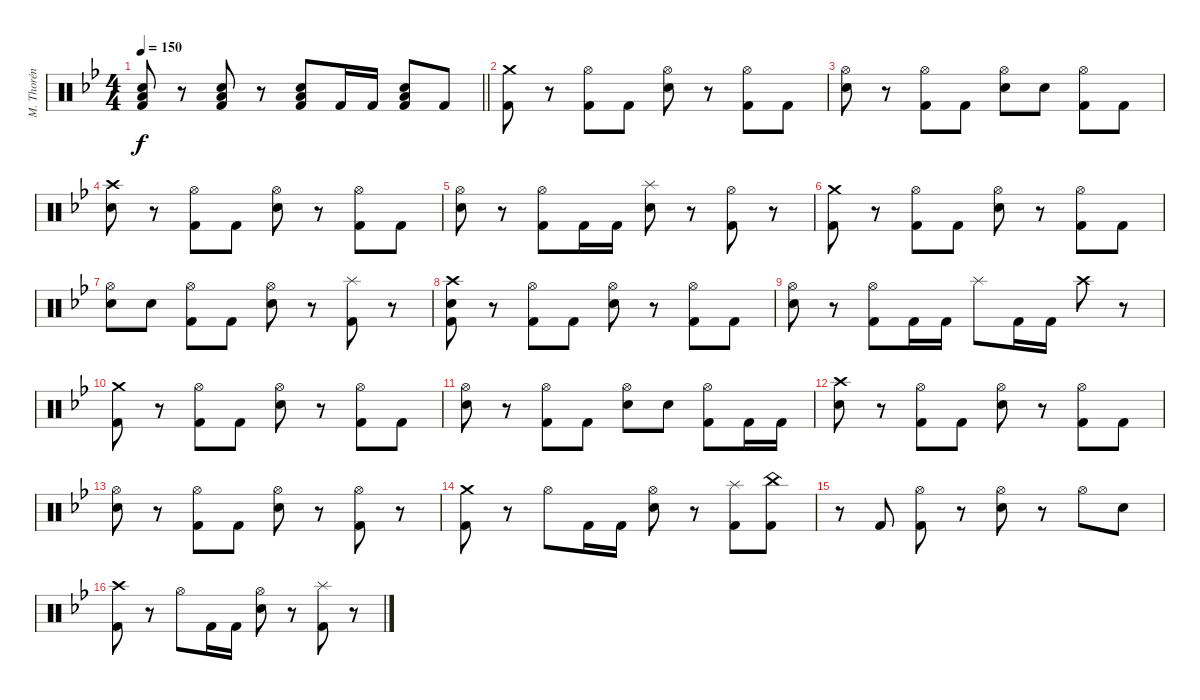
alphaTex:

\track ("M. Thorén (Drums)" "M. Thorén ") {instrument percussion}
\staff {score}
\articulation defaults
\ts (4 4)
\tempo 150
\clef neutral
\barLineRight lightlight
\ks gminor
("Electric Snare (hit)" "Low Floor Tom (hit)" "Kick (hit) 2").8{dy f} r.8 ("Electric Snare (hit)" "Low Floor Tom (hit)" "Kick (hit) 2").8 r.8 ("Electric Snare (hit)" "Low Floor Tom (hit)" "Kick (hit) 2").8 "Kick (hit) 2".16 "Kick (hit) 2".16 ("Electric Snare (hit)" "Low Floor Tom (hit)" "Kick (hit) 2").8 "Kick (hit) 2".8 |
("Crash medium (hit)" "Kick (hit) 2").8 r.8 ("Hi-Hat (open)" "Kick (hit) 2").8 "Kick (hit) 2".8 ("Hi-Hat (open)" "Electric Snare (hit)").8 r.8 ("Hi-Hat (open)" "Kick (hit) 2").8 "Kick (hit) 2".8 |
("Hi-Hat (open)" "Electric Snare (hit)").8 r.8 ("Hi-Hat (open)" "Kick (hit) 2").8 "Kick (hit) 2".8 ("Hi-Hat (open)" "Electric Snare (hit)").8 "Electric Snare (hit)".8 ("Hi-Hat (open)" "Kick (hit) 2").8 "Kick (hit) 2".8 |
("Crash high (hit)" "Electric Snare (hit)").8 r.8 ("Hi-Hat (open)" "Kick (hit) 2").8 "Kick (hit) 2".8 ("Hi-Hat (open)" "Electric Snare (hit)").8 r.8 ("Hi-Hat (open)" "Kick (hit) 2").8 "Kick (hit) 2".8 |
("Hi-Hat (open)" "Electric Snare (hit)").8 r.8 ("Hi-Hat (open)" "Kick (hit) 2").8 "Kick (hit) 2".16 "Kick (hit) 2".16 ("Splash (hit)" "Electric Snare (hit)").8 r.8 ("Hi-Hat (open)" "Kick (hit) 2").8 r.8 |
("Crash medium (hit)" "Kick (hit) 2").8 r.8 ("Hi-Hat (open)" "Kick (hit) 2").8 "Kick (hit) 2".8 ("Hi-Hat (open)" "Electric Snare (hit)").8 r.8 ("Hi-Hat (open)" "Kick (hit) 2").8 "Kick (hit) 2".8 |
("Hi-Hat (open)" "Electric Snare (hit)").8 "Electric Snare (hit)".8 ("Hi-Hat (open)" "Kick (hit) 2").8 "Kick (hit) 2".8 ("Hi-Hat (open)" "Electric Snare (hit)").8 r.8 ("Splash (hit)" "Kick (hit) 2").8 r.8 |
("Crash high (hit)" "Electric Snare (hit)" "Kick (hit) 2").8 r.8 ("Hi-Hat (open)" "Kick (hit) 2").8 "Kick (hit) 2".8 ("Hi-Hat (open)" "Electric Snare (hit)").8 r.8 ("Hi-Hat (open)" "Kick (hit) 2").8 "Kick (hit) 2".8 |
("Hi-Hat (open)" "Electric Snare (hit)").8 r.8 ("Hi-Hat (open)" "Kick (hit) 2").8 "Kick (hit) 2".16 "Kick (hit) 2".16 "Splash (hit)".8 "Kick (hit) 2".16 "Kick (hit) 2".16 "Crash high (hit)".8 r.8 |
("Crash medium (hit)" "Kick (hit) 2").8 r.8 ("Hi-Hat (open)" "Kick (hit) 2").8 "Kick (hit) 2".8 ("Hi-Hat (open)" "Electric Snare (hit)").8 r.8 ("Hi-Hat (open)" "Kick (hit) 2").8 "Kick (hit) 2".8 |
("Hi-Hat (open)" "Electric Snare (hit)").8 r.8 ("Hi-Hat (open)" "Kick (hit) 2").8 "Kick (hit) 2".8 ("Hi-Hat (open)" "Electric Snare (hit)").8 "Electric Snare (hit)".8 ("Hi-Hat (open)" "Kick (hit) 2").8 "Kick (hit) 2".16 "Kick (hit) 2".16 |
("Crash high (hit)" "Electric Snare (hit)").8 r.8 ("Hi-Hat (open)" "Kick (hit) 2").8 "Kick (hit) 2".8 ("Hi-Hat (open)" "Electric Snare (hit)").8 r.8 ("Hi-Hat (open)" "Kick (hit) 2").8 "Kick (hit) 2".8 |
("Hi-Hat (open)" "Electric Snare (hit)").8 r.8 ("Hi-Hat (open)" "Kick (hit) 2").8 "Kick (hit) 2".8 ("Hi-Hat (open)" "Electric Snare (hit)").8 r.8 ("Hi-Hat (open)" "Kick (hit) 2").8 r.8 |
("Crash medium (hit)" "Kick (hit) 2").8 r.8 "Hi-Hat (open)".8 "Kick (hit) 2".16 "Kick (hit) 2".16 ("Hi-Hat (open)" "Electric Snare (hit)").8 r.8 ("Splash (hit)" "Kick (hit) 2").8 ("China (hit)" "Kick (hit) 2").8 |
r.8 "Kick (hit) 2".8 ("Hi-Hat (open)" "Kick (hit) 2").8 r.8 ("Hi-Hat (open)" "Electric Snare (hit)").8 r.8 "Hi-Hat (open)".8 "Electric Snare (hit)".8 |
("Crash high (hit)" "Kick (hit) 2").8 r.8 "Hi-Hat (open)".8 "Kick (hit) 2".16 "Kick (hit) 2".16 ("Hi-Hat (open)" "Electric Snare (hit)").8 r.8 ("Splash (hit)" "Kick (hit) 2").8 r.8
